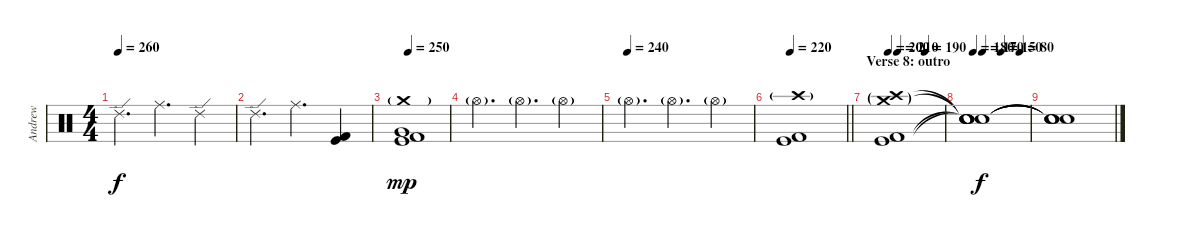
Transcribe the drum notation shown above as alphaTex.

\track ("Andrew" "Andrew") {instrument percussion}
\staff {score}
\articulation defaults
\ts (4 4)
\tempo 260
\clef neutral
\ks c "Ride (edge) 2".4{d dy f} "Ride (middle)".4{d} "Ride (edge) 2".4
|
"Ride (edge) 2".4{d} "Ride (middle)".4{d} ("Kick (hit)" "Kick (hit) 2").4 |
\tempo 250
("Crash medium (hit)"{g} "Very Low Tom (hit)" "Kick (hit)" "Kick (hit) 2").1{dy mp} |
"Hi-Hat (open)"{g}.4{d} "Hi-Hat (open)"{g}.4{d} "Hi-Hat (open)"{g}.4 |
\tempo (240)
"Hi-Hat (open)"{g}.4{d} "Hi-Hat (open)"{g}.4{d} "Hi-Hat (open)"{g}.4 |
\tempo 220
\barLineRight lightlight
("Crash high (hit)"{g} "Kick (hit)" "Kick (hit) 2").1 |
\section ("" "Verse 8: outro")
\tempo 200
\tempo (210 0.16666666666666666)
\tempo (190 0.6666666666666666)
("Crash medium (hit)"{g} "Crash high (hit)"{g} "Kick (hit)" "Kick (hit) 2").1 |
\tempo 180
\tempo (170 0.16666666666666666)
\tempo (150 0.5)
\tempo (80 0.8333333333333334)
("Snare (hit)"{t} "Snare (hit)"{t} "Snare (hit)"{t} "Snare (hit)"{t} "Snare (hit)").1{dy f} |
("Snare (hit)"{t} "Snare (hit)"{t} "Snare (hit)"{t} "Snare (hit)"{t}).1
